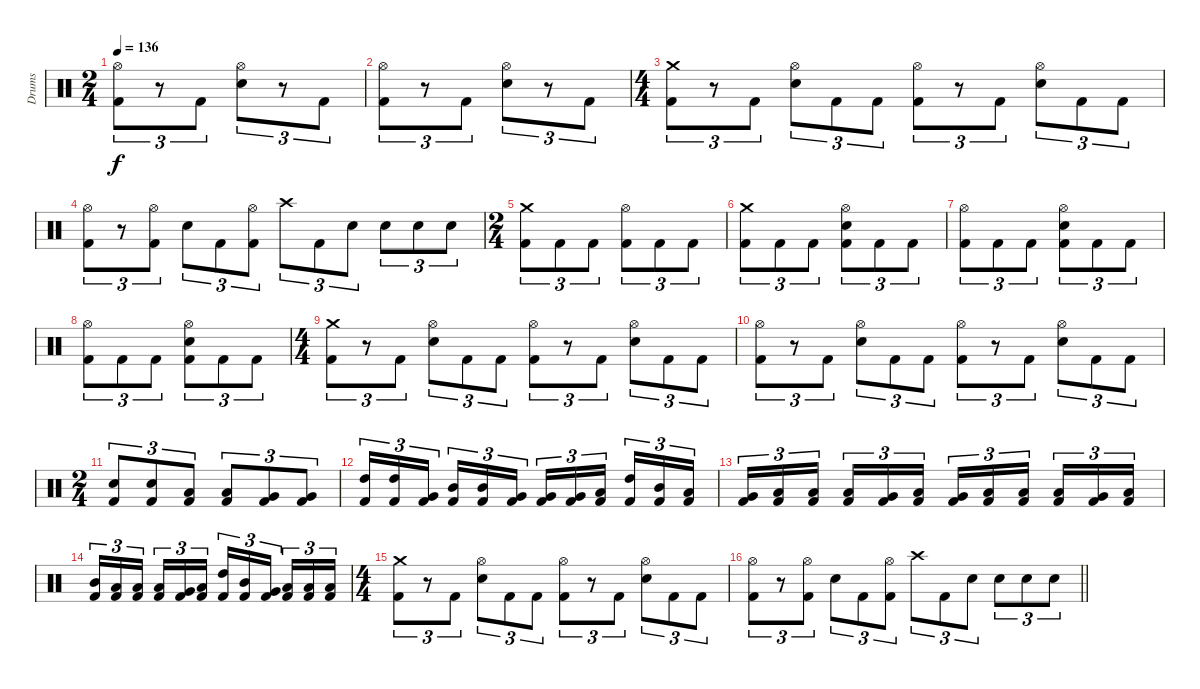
\track ("Drums" "Drums") {instrument percussion}
\staff {score}
\articulation defaults
\ts (2 4)
\tempo 136
\clef neutral
\ks c
("Hi-Hat (open)" "Kick (hit) 2").8{tu (3 2) dy f} r.8{tu (3 2)} "Kick (hit) 2".8{tu (3 2)} ("Hi-Hat (open)" "Electric Snare (hit)").8{tu (3 2)} r.8{tu (3 2)} "Kick (hit) 2".8{tu (3 2)} |
("Hi-Hat (open)" "Kick (hit) 2").8{tu (3 2)} r.8{tu (3 2)} "Kick (hit) 2".8{tu (3 2)} ("Hi-Hat (open)" "Electric Snare (hit)").8{tu (3 2)} r.8{tu (3 2)} "Kick (hit) 2".8{tu (3 2)} |
\ts (4 4)
("Crash medium (hit)" "Kick (hit) 2").8{tu (3 2)} r.8{tu (3 2)} "Kick (hit) 2".8{tu (3 2)} ("Hi-Hat (open)" "Electric Snare (hit)").8{tu (3 2)} "Kick (hit) 2".8{tu (3 2)} "Kick (hit) 2".8{tu (3 2)} ("Hi-Hat (open)" "Kick (hit) 2").8{tu (3 2)} r.8{tu (3 2)} "Kick (hit) 2".8{tu (3 2)} ("Hi-Hat (open)" "Electric Snare (hit)").8{tu (3 2)} "Kick (hit) 2".8{tu (3 2)} "Kick (hit) 2".8{tu (3 2)} |
("Hi-Hat (open)" "Kick (hit) 2").8{tu (3 2)} r.8{tu (3 2)} ("Hi-Hat (open)" "Kick (hit) 2").8{tu (3 2)} "Electric Snare (hit)".8{tu (3 2)} "Kick (hit) 2".8{tu (3 2)} ("Hi-Hat (open)" "Kick (hit) 2").8{tu (3 2)} "Crash high (hit)".8{tu (3 2)} "Kick (hit) 2".8{tu (3 2)} "Electric Snare (hit)".8{tu (3 2)} "Electric Snare (hit)".8{tu (3 2)} "Electric Snare (hit)".8{tu (3 2)} "Electric Snare (hit)".8{tu (3 2)} |
\ts (2 4)
("Crash medium (hit)" "Kick (hit) 2").8{tu (3 2)} "Kick (hit) 2".8{tu (3 2)} "Kick (hit) 2".8{tu (3 2)} ("Hi-Hat (open)" "Kick (hit) 2").8{tu (3 2)} "Kick (hit) 2".8{tu (3 2)} "Kick (hit) 2".8{tu (3 2)} |
("Crash medium (hit)" "Kick (hit) 2").8{tu (3 2)} "Kick (hit) 2".8{tu (3 2)} "Kick (hit) 2".8{tu (3 2)} ("Hi-Hat (open)" "Electric Snare (hit)" "Kick (hit) 2").8{tu (3 2)} "Kick (hit) 2".8{tu (3 2)} "Kick (hit) 2".8{tu (3 2)} |
("Hi-Hat (open)" "Kick (hit) 2").8{tu (3 2)} "Kick (hit) 2".8{tu (3 2)} "Kick (hit) 2".8{tu (3 2)} ("Hi-Hat (open)" "Electric Snare (hit)" "Kick (hit) 2").8{tu (3 2)} "Kick (hit) 2".8{tu (3 2)} "Kick (hit) 2".8{tu (3 2)} |
("Hi-Hat (open)" "Kick (hit) 2").8{tu (3 2)} "Kick (hit) 2".8{tu (3 2)} "Kick (hit) 2".8{tu (3 2)} ("Hi-Hat (open)" "Electric Snare (hit)" "Kick (hit) 2").8{tu (3 2)} "Kick (hit) 2".8{tu (3 2)} "Kick (hit) 2".8{tu (3 2)} |
\ts (4 4)
("Crash medium (hit)" "Kick (hit) 2").8{tu (3 2)} r.8{tu (3 2)} "Kick (hit) 2".8{tu (3 2)} ("Hi-Hat (open)" "Electric Snare (hit)").8{tu (3 2)} "Kick (hit) 2".8{tu (3 2)} "Kick (hit) 2".8{tu (3 2)} ("Hi-Hat (open)" "Kick (hit) 2").8{tu (3 2)} r.8{tu (3 2)} "Kick (hit) 2".8{tu (3 2)} ("Hi-Hat (open)" "Electric Snare (hit)").8{tu (3 2)} "Kick (hit) 2".8{tu (3 2)} "Kick (hit) 2".8{tu (3 2)} |
("Hi-Hat (open)" "Kick (hit) 2").8{tu (3 2)} r.8{tu (3 2)} "Kick (hit) 2".8{tu (3 2)} ("Hi-Hat (open)" "Electric Snare (hit)").8{tu (3 2)} "Kick (hit) 2".8{tu (3 2)} "Kick (hit) 2".8{tu (3 2)} ("Hi-Hat (open)" "Kick (hit) 2").8{tu (3 2)} r.8{tu (3 2)} "Kick (hit) 2".8{tu (3 2)} ("Hi-Hat (open)" "Electric Snare (hit)").8{tu (3 2)} "Kick (hit) 2".8{tu (3 2)} "Kick (hit) 2".8{tu (3 2)} |
\ts (2 4)
("Electric Snare (hit)" "Kick (hit) 2").8{tu (3 2)} ("Electric Snare (hit)" "Kick (hit) 2").8{tu (3 2)} ("Low Tom (hit)" "Kick (hit) 2").8{tu (3 2)} ("Low Tom (hit)" "Kick (hit) 2").8{tu (3 2)} ("Very Low Tom (hit)" "Kick (hit) 2").8{tu (3 2)} ("Very Low Tom (hit)" "Kick (hit) 2").8{tu (3 2)} |
("High Tom (hit)" "Kick (hit) 2").16{tu (3 2)} ("High Tom (hit)" "Kick (hit) 2").16{tu (3 2)} ("Very Low Tom (hit)" "Kick (hit) 2").16{tu (3 2) beam splitsecondary} ("Mid Tom (hit)" "Kick (hit) 2").16{tu (3 2)} ("Mid Tom (hit)" "Kick (hit) 2").16{tu (3 2)} ("Very Low Tom (hit)" "Kick (hit) 2").16{tu (3 2)} ("Very Low Tom (hit)" "Kick (hit) 2").16{tu (3 2)} ("Very Low Tom (hit)" "Kick (hit) 2").16{tu (3 2)} ("Low Floor Tom (hit)" "Kick (hit) 2").16{tu (3 2) beam splitsecondary} ("High Tom (hit)" "Kick (hit) 2").16{tu (3 2)} ("Mid Tom (hit)" "Kick (hit) 2").16{tu (3 2)} ("Low Floor Tom (hit)" "Kick (hit) 2").16{tu (3 2)} |
("Very Low Tom (hit)" "Kick (hit) 2").16{tu (3 2)} ("Low Floor Tom (hit)" "Kick (hit) 2").16{tu (3 2)} ("Low Floor Tom (hit)" "Kick (hit) 2").16{tu (3 2) beam splitsecondary} ("Low Tom (hit)" "Kick (hit) 2").16{tu (3 2)} ("Very Low Tom (hit)" "Kick (hit) 2").16{tu (3 2)} ("Low Floor Tom (hit)" "Kick (hit) 2").16{tu (3 2)} ("Very Low Tom (hit)" "Kick (hit) 2").16{tu (3 2)} ("Low Floor Tom (hit)" "Kick (hit) 2").16{tu (3 2)} ("Low Floor Tom (hit)" "Kick (hit) 2").16{tu (3 2) beam splitsecondary} ("Low Tom (hit)" "Kick (hit) 2").16{tu (3 2)} ("Very Low Tom (hit)" "Kick (hit) 2").16{tu (3 2)} ("Low Floor Tom (hit)" "Kick (hit) 2").16{tu (3 2)} |
("Mid Tom (hit)" "Kick (hit) 2").16{tu (3 2)} ("Low Tom (hit)" "Kick (hit) 2").16{tu (3 2)} ("Low Floor Tom (hit)" "Kick (hit) 2").16{tu (3 2) beam splitsecondary} ("Low Tom (hit)" "Kick (hit) 2").16{tu (3 2)} ("Very Low Tom (hit)" "Kick (hit) 2").16{tu (3 2)} ("Low Floor Tom (hit)" "Kick (hit) 2").16{tu (3 2)} ("High Tom (hit)" "Kick (hit) 2").16{tu (3 2)} ("Mid Tom (hit)" "Kick (hit) 2").16{tu (3 2)} ("Very Low Tom (hit)" "Kick (hit) 2").16{tu (3 2) beam splitsecondary} ("Low Floor Tom (hit)" "Kick (hit) 2").16{tu (3 2)} ("Low Floor Tom (hit)" "Kick (hit) 2").16{tu (3 2)} ("Low Floor Tom (hit)" "Kick (hit) 2").16{tu (3 2)} |
\ts (4 4)
("Crash medium (hit)" "Kick (hit) 2").8{tu (3 2)} r.8{tu (3 2)} "Kick (hit) 2".8{tu (3 2)} ("Hi-Hat (open)" "Electric Snare (hit)").8{tu (3 2)} "Kick (hit) 2".8{tu (3 2)} "Kick (hit) 2".8{tu (3 2)} ("Hi-Hat (open)" "Kick (hit) 2").8{tu (3 2)} r.8{tu (3 2)} "Kick (hit) 2".8{tu (3 2)} ("Hi-Hat (open)" "Electric Snare (hit)").8{tu (3 2)} "Kick (hit) 2".8{tu (3 2)} "Kick (hit) 2".8{tu (3 2)} |
\barLineRight lightlight
("Hi-Hat (open)" "Kick (hit) 2").8{tu (3 2)} r.8{tu (3 2)} ("Hi-Hat (open)" "Kick (hit) 2").8{tu (3 2)} "Electric Snare (hit)".8{tu (3 2)} "Kick (hit) 2".8{tu (3 2)} ("Hi-Hat (open)" "Kick (hit) 2").8{tu (3 2)} "Crash high (hit)".8{tu (3 2)} "Kick (hit) 2".8{tu (3 2)} "Electric Snare (hit)".8{tu (3 2)} "Electric Snare (hit)".8{tu (3 2)} "Electric Snare (hit)".8{tu (3 2)} "Electric Snare (hit)".8{tu (3 2)}
